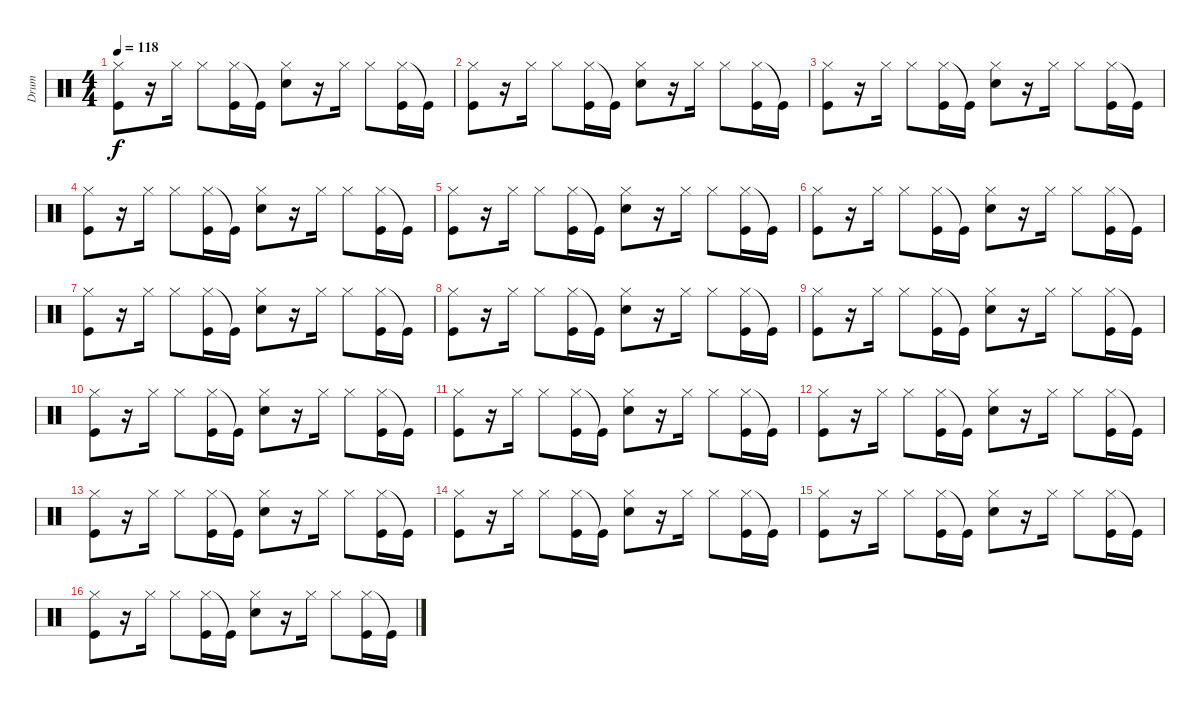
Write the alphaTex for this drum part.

\track ("Drum" "Drum") {instrument percussion}
\staff {score}
\articulation defaults
\ts (4 4)
\tempo 118
\clef neutral
\ks c
("Hi-Hat (closed)" "Kick (hit)").8{dy f} r.16 "Hi-Hat (closed)".16 "Hi-Hat (closed)".8 ("Hi-Hat (closed)" "Kick (hit)").16 "Kick (hit)"{t}.16 ("Hi-Hat (closed)" "Hand Clap (hit)").8 r.16 "Hi-Hat (closed)".16 "Hi-Hat (closed)".8 ("Hi-Hat (closed)" "Kick (hit)").16 "Kick (hit)"{t}.16 |
("Hi-Hat (closed)" "Kick (hit)").8 r.16 "Hi-Hat (closed)".16 "Hi-Hat (closed)".8 ("Hi-Hat (closed)" "Kick (hit)").16 "Kick (hit)"{t}.16 ("Hi-Hat (closed)" "Hand Clap (hit)").8 r.16 "Hi-Hat (closed)".16 "Hi-Hat (closed)".8 ("Hi-Hat (closed)" "Kick (hit)").16 "Kick (hit)"{t}.16 |
("Kick (hit)" "Hi-Hat (closed)").8 r.16 "Hi-Hat (closed)".16 "Hi-Hat (closed)".8 ("Hi-Hat (closed)" "Kick (hit)").16 "Kick (hit)"{t}.16 ("Hi-Hat (closed)" "Hand Clap (hit)").8 r.16 "Hi-Hat (closed)".16 "Hi-Hat (closed)".8 ("Hi-Hat (closed)" "Kick (hit)").16 "Kick (hit)"{t}.16 |
("Hi-Hat (closed)" "Kick (hit)").8 r.16 "Hi-Hat (closed)".16 "Hi-Hat (closed)".8 ("Hi-Hat (closed)" "Kick (hit)").16 "Kick (hit)"{t}.16 ("Hi-Hat (closed)" "Hand Clap (hit)").8 r.16 "Hi-Hat (closed)".16 "Hi-Hat (closed)".8 ("Hi-Hat (closed)" "Kick (hit)").16 "Kick (hit)"{t}.16 |
("Kick (hit)" "Hi-Hat (closed)").8 r.16 "Hi-Hat (closed)".16 "Hi-Hat (closed)".8 ("Hi-Hat (closed)" "Kick (hit)").16 "Kick (hit)"{t}.16 ("Hi-Hat (closed)" "Hand Clap (hit)").8 r.16 "Hi-Hat (closed)".16 "Hi-Hat (closed)".8 ("Hi-Hat (closed)" "Kick (hit)").16 "Kick (hit)"{t}.16 |
("Hi-Hat (closed)" "Kick (hit)").8 r.16 "Hi-Hat (closed)".16 "Hi-Hat (closed)".8 ("Hi-Hat (closed)" "Kick (hit)").16 "Kick (hit)"{t}.16 ("Hi-Hat (closed)" "Hand Clap (hit)").8 r.16 "Hi-Hat (closed)".16 "Hi-Hat (closed)".8 ("Hi-Hat (closed)" "Kick (hit)").16 "Kick (hit)"{t}.16 |
("Kick (hit)" "Hi-Hat (closed)").8 r.16 "Hi-Hat (closed)".16 "Hi-Hat (closed)".8 ("Hi-Hat (closed)" "Kick (hit)").16 "Kick (hit)"{t}.16 ("Hi-Hat (closed)" "Hand Clap (hit)").8 r.16 "Hi-Hat (closed)".16 "Hi-Hat (closed)".8 ("Hi-Hat (closed)" "Kick (hit)").16 "Kick (hit)"{t}.16 |
("Kick (hit)" "Hi-Hat (closed)").8 r.16 "Hi-Hat (closed)".16 "Hi-Hat (closed)".8 ("Hi-Hat (closed)" "Kick (hit)").16 "Kick (hit)"{t}.16 ("Hi-Hat (closed)" "Hand Clap (hit)").8 r.16 "Hi-Hat (closed)".16 "Hi-Hat (closed)".8 ("Hi-Hat (closed)" "Kick (hit)").16 "Kick (hit)"{t}.16 |
("Hi-Hat (closed)" "Kick (hit)").8 r.16 "Hi-Hat (closed)".16 "Hi-Hat (closed)".8 ("Hi-Hat (closed)" "Kick (hit)").16 "Kick (hit)"{t}.16 ("Hi-Hat (closed)" "Hand Clap (hit)").8 r.16 "Hi-Hat (closed)".16 "Hi-Hat (closed)".8 ("Hi-Hat (closed)" "Kick (hit)").16 "Kick (hit)"{t}.16 |
("Hi-Hat (closed)" "Kick (hit)").8 r.16 "Hi-Hat (closed)".16 "Hi-Hat (closed)".8 ("Hi-Hat (closed)" "Kick (hit)").16 "Kick (hit)"{t}.16 ("Hi-Hat (closed)" "Hand Clap (hit)").8 r.16 "Hi-Hat (closed)".16 "Hi-Hat (closed)".8 ("Hi-Hat (closed)" "Kick (hit)").16 "Kick (hit)"{t}.16 |
("Kick (hit)" "Hi-Hat (closed)").8 r.16 "Hi-Hat (closed)".16 "Hi-Hat (closed)".8 ("Hi-Hat (closed)" "Kick (hit)").16 "Kick (hit)"{t}.16 ("Hi-Hat (closed)" "Hand Clap (hit)").8 r.16 "Hi-Hat (closed)".16 "Hi-Hat (closed)".8 ("Hi-Hat (closed)" "Kick (hit)").16 "Kick (hit)"{t}.16 |
("Hi-Hat (closed)" "Kick (hit)").8 r.16 "Hi-Hat (closed)".16 "Hi-Hat (closed)".8 ("Hi-Hat (closed)" "Kick (hit)").16 "Kick (hit)"{t}.16 ("Hi-Hat (closed)" "Hand Clap (hit)").8 r.16 "Hi-Hat (closed)".16 "Hi-Hat (closed)".8 ("Hi-Hat (closed)" "Kick (hit)").16 "Kick (hit)"{t}.16 |
("Kick (hit)" "Hi-Hat (closed)").8 r.16 "Hi-Hat (closed)".16 "Hi-Hat (closed)".8 ("Hi-Hat (closed)" "Kick (hit)").16 "Kick (hit)"{t}.16 ("Hi-Hat (closed)" "Hand Clap (hit)").8 r.16 "Hi-Hat (closed)".16 "Hi-Hat (closed)".8 ("Hi-Hat (closed)" "Kick (hit)").16 "Kick (hit)"{t}.16 |
("Hi-Hat (closed)" "Kick (hit)").8 r.16 "Hi-Hat (closed)".16 "Hi-Hat (closed)".8 ("Hi-Hat (closed)" "Kick (hit)").16 "Kick (hit)"{t}.16 ("Hi-Hat (closed)" "Hand Clap (hit)").8 r.16 "Hi-Hat (closed)".16 "Hi-Hat (closed)".8 ("Hi-Hat (closed)" "Kick (hit)").16 "Kick (hit)"{t}.16 |
("Kick (hit)" "Hi-Hat (closed)").8 r.16 "Hi-Hat (closed)".16 "Hi-Hat (closed)".8 ("Hi-Hat (closed)" "Kick (hit)").16 "Kick (hit)"{t}.16 ("Hi-Hat (closed)" "Hand Clap (hit)").8 r.16 "Hi-Hat (closed)".16 "Hi-Hat (closed)".8 ("Hi-Hat (closed)" "Kick (hit)").16 "Kick (hit)"{t}.16 |
("Hi-Hat (closed)" "Kick (hit)").8 r.16 "Hi-Hat (closed)".16 "Hi-Hat (closed)".8 ("Hi-Hat (closed)" "Kick (hit)").16 "Kick (hit)"{t}.16 ("Hi-Hat (closed)" "Hand Clap (hit)").8 r.16 "Hi-Hat (closed)".16 "Hi-Hat (closed)".8 ("Hi-Hat (closed)" "Kick (hit)").16 "Kick (hit)"{t}.16
